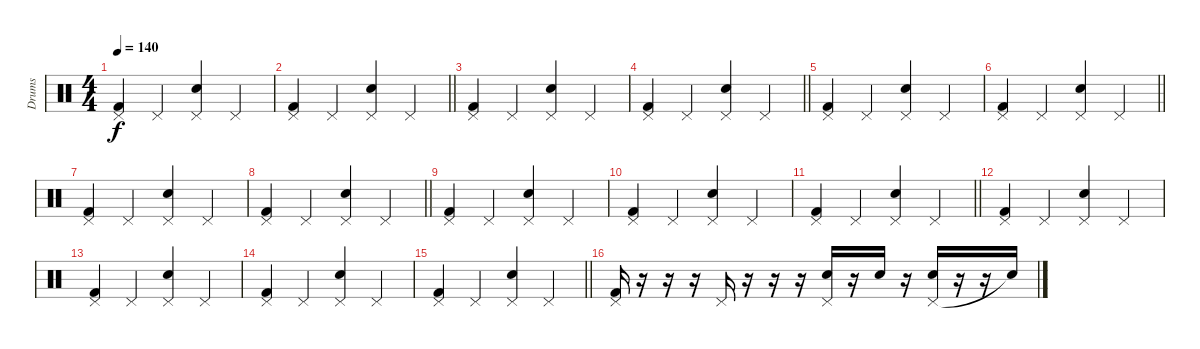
\track ("Drums" "Drums") {instrument percussion}
\staff {score}
\articulation defaults
\ts (4 4)
\section ("" "")
\tempo 140
\clef neutral
\ks c
("Pedal Hi-Hat (hit)" "Kick (hit) 2").4{dy f} "Pedal Hi-Hat (hit)".4 ("Pedal Hi-Hat (hit)" "Snare (hit) 2").4 "Pedal Hi-Hat (hit)".4 |
\barLineRight lightlight
("Pedal Hi-Hat (hit)" "Kick (hit) 2").4 "Pedal Hi-Hat (hit)".4 ("Pedal Hi-Hat (hit)" "Snare (hit) 2").4 "Pedal Hi-Hat (hit)".4 |
("Pedal Hi-Hat (hit)" "Kick (hit) 2").4 "Pedal Hi-Hat (hit)".4 ("Pedal Hi-Hat (hit)" "Snare (hit) 2").4 "Pedal Hi-Hat (hit)".4 |
\barLineRight lightlight
("Pedal Hi-Hat (hit)" "Kick (hit) 2").4 "Pedal Hi-Hat (hit)".4 ("Pedal Hi-Hat (hit)" "Snare (hit) 2").4 "Pedal Hi-Hat (hit)".4 |
("Pedal Hi-Hat (hit)" "Kick (hit) 2").4 "Pedal Hi-Hat (hit)".4 ("Pedal Hi-Hat (hit)" "Snare (hit) 2").4 "Pedal Hi-Hat (hit)".4 |
\barLineRight lightlight
("Pedal Hi-Hat (hit)" "Kick (hit) 2").4 "Pedal Hi-Hat (hit)".4 ("Pedal Hi-Hat (hit)" "Snare (hit) 2").4 "Pedal Hi-Hat (hit)".4 |
("Pedal Hi-Hat (hit)" "Kick (hit) 2").4 "Pedal Hi-Hat (hit)".4 ("Pedal Hi-Hat (hit)" "Snare (hit) 2").4 "Pedal Hi-Hat (hit)".4 |
\barLineRight lightlight
("Pedal Hi-Hat (hit)" "Kick (hit) 2").4 "Pedal Hi-Hat (hit)".4 ("Pedal Hi-Hat (hit)" "Snare (hit) 2").4 "Pedal Hi-Hat (hit)".4 |
("Pedal Hi-Hat (hit)" "Kick (hit) 2").4 "Pedal Hi-Hat (hit)".4 ("Pedal Hi-Hat (hit)" "Snare (hit) 2").4 "Pedal Hi-Hat (hit)".4 |
("Pedal Hi-Hat (hit)" "Kick (hit) 2").4 "Pedal Hi-Hat (hit)".4 ("Pedal Hi-Hat (hit)" "Snare (hit) 2").4 "Pedal Hi-Hat (hit)".4 |
\barLineRight lightlight
("Pedal Hi-Hat (hit)" "Kick (hit) 2").4 "Pedal Hi-Hat (hit)".4 ("Pedal Hi-Hat (hit)" "Snare (hit) 2").4 "Pedal Hi-Hat (hit)".4 |
("Pedal Hi-Hat (hit)" "Kick (hit) 2").4 "Pedal Hi-Hat (hit)".4 ("Pedal Hi-Hat (hit)" "Snare (hit) 2").4 "Pedal Hi-Hat (hit)".4 |
("Pedal Hi-Hat (hit)" "Kick (hit) 2").4 "Pedal Hi-Hat (hit)".4 ("Pedal Hi-Hat (hit)" "Snare (hit) 2").4 "Pedal Hi-Hat (hit)".4 |
("Pedal Hi-Hat (hit)" "Kick (hit) 2").4 "Pedal Hi-Hat (hit)".4 ("Pedal Hi-Hat (hit)" "Snare (hit) 2").4 "Pedal Hi-Hat (hit)".4 |
\barLineRight lightlight
("Pedal Hi-Hat (hit)" "Kick (hit) 2").4 "Pedal Hi-Hat (hit)".4 ("Pedal Hi-Hat (hit)" "Snare (hit) 2").4 "Pedal Hi-Hat (hit)".4 |
("Pedal Hi-Hat (hit)" "Kick (hit) 2").16 r.16 r.16 r.16 "Pedal Hi-Hat (hit)".16 r.16 r.16 r.16 ("Pedal Hi-Hat (hit)" "Snare (hit) 2").16 r.16 "Snare (hit) 2".16 r.16 ("Pedal Hi-Hat (hit)" "Snare (hit) 2").16 r.16 r.16 "Snare (hit)"{t}.16
